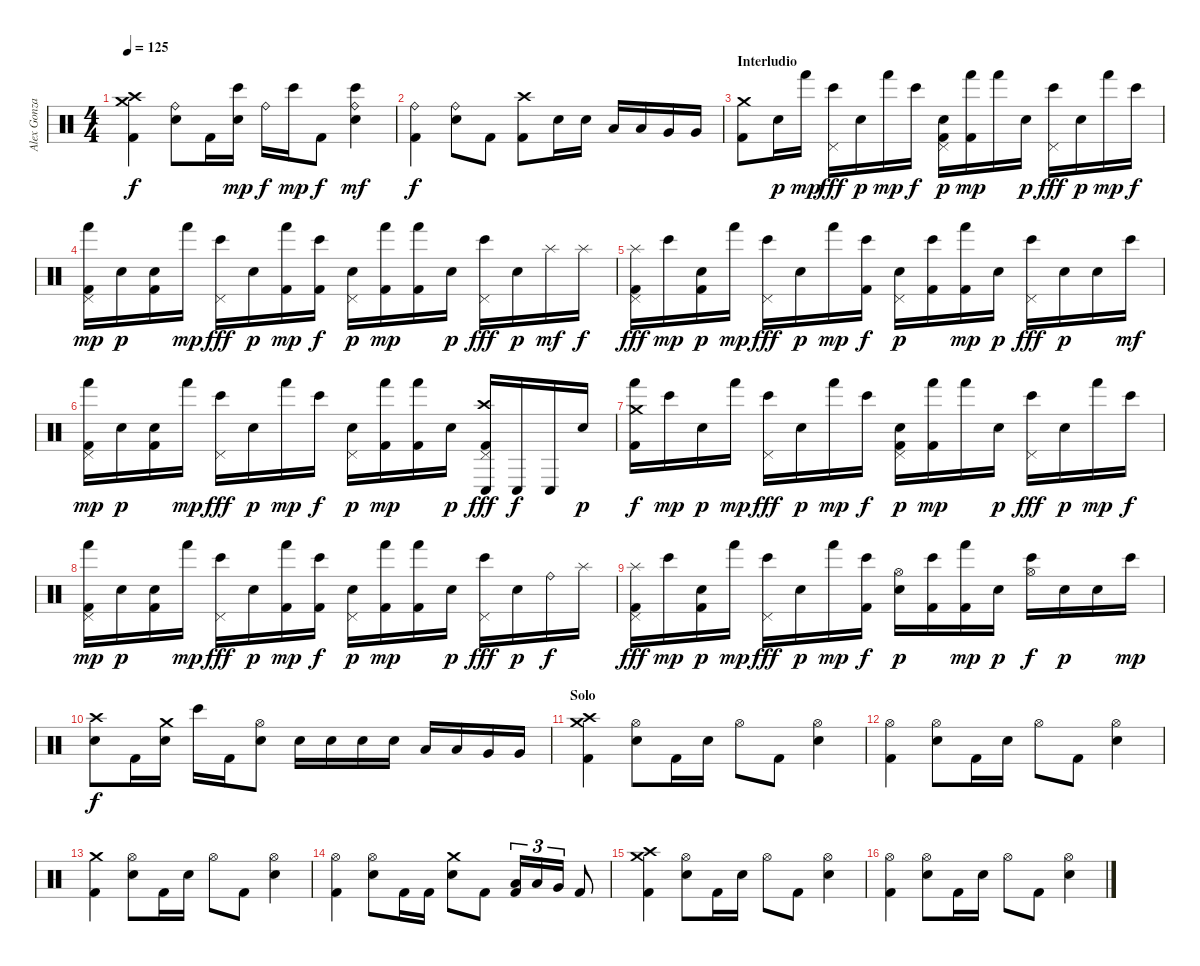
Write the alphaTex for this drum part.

\track ("Alex Gonzales" "Alex Gonza") {instrument percussion}
\staff {score}
\articulation defaults
\ts (4 4)
\tempo 125
\clef neutral
\ks c
("Crash medium (hit)" "Crash high (hit)" "Kick (hit) 2").4{dy f} ("Ride (bell)" "Electric Snare (hit)").8 "Kick (hit) 2".16 ("Electric Snare (hit)" "Bongo High (hit)").16{dy mp} "Ride (bell)".16{dy f} "Bongo High (hit)".16{dy mp} "Kick (hit) 2".8{dy f} ("Ride (bell)" "Electric Snare (hit)" "Bongo High (hit)").4{dy mf} |
("Ride (bell)" "Kick (hit) 2").4{dy f} ("Ride (bell)" "Electric Snare (hit)").8 "Kick (hit) 2".8 ("Crash high (hit)" "Kick (hit) 2").8 "Electric Snare (hit)".16 "Electric Snare (hit)".16 "Low Tom (hit)".16 "Low Tom (hit)".16 "Very Low Tom (hit)".16 "Very Low Tom (hit)".16 |
\section ("" "Interludio")
("Crash medium (hit)" "Kick (hit) 2").8 "Electric Snare (hit)".16{dy p} "Hand (hit)".16{dy mp} ("Pedal Hi-Hat (hit)" "Bongo High (hit)").16{dy fff} "Electric Snare (hit)".16{dy p} "Hand (hit)".16{dy mp} "Bongo High (hit)".16{dy f} ("Pedal Hi-Hat (hit)" "Electric Snare (hit)" "Kick (hit) 2").16{dy p} ("Hand (hit)" "Kick (hit) 2").16{dy mp} "Hand (hit)".16 "Electric Snare (hit)".16{dy p} ("Pedal Hi-Hat (hit)" "Bongo High (hit)").16{dy fff} "Electric Snare (hit)".16{dy p} "Hand (hit)".16{dy mp} "Bongo High (hit)".16{dy f} |
("Pedal Hi-Hat (hit)" "Hand (hit)" "Kick (hit) 2").16{dy mp} "Electric Snare (hit)".16{dy p} ("Electric Snare (hit)" "Kick (hit) 2").16 "Hand (hit)".16{dy mp} ("Pedal Hi-Hat (hit)" "Bongo High (hit)").16{dy fff} "Electric Snare (hit)".16{dy p} ("Hand (hit)" "Kick (hit) 2").16{dy mp} ("Bongo High (hit)" "Kick (hit) 2").16{dy f} ("Pedal Hi-Hat (hit)" "Electric Snare (hit)").16{dy p} ("Hand (hit)" "Kick (hit) 2").16{dy mp} ("Hand (hit)" "Kick (hit) 2").16 "Electric Snare (hit)".16{dy p} ("Pedal Hi-Hat (hit)" "Bongo High (hit)").16{dy fff} "Electric Snare (hit)".16{dy p} "Splash (hit)".16{dy mf} "Splash (hit)".16{dy f} |
("Pedal Hi-Hat (hit)" "Splash (hit)" "Kick (hit) 2").16{dy fff} "Bongo High (hit)".16{dy mp} ("Electric Snare (hit)" "Kick (hit) 2").16{dy p} "Hand (hit)".16{dy mp} ("Pedal Hi-Hat (hit)" "Bongo High (hit)").16{dy fff} "Electric Snare (hit)".16{dy p} "Hand (hit)".16{dy mp} ("Bongo High (hit)" "Kick (hit) 2").16{dy f} ("Pedal Hi-Hat (hit)" "Electric Snare (hit)").16{dy p} ("Bongo High (hit)" "Kick (hit) 2").16 ("Hand (hit)" "Kick (hit) 2").16{dy mp} "Electric Snare (hit)".16{dy p} ("Pedal Hi-Hat (hit)" "Bongo High (hit)").16{dy fff} "Electric Snare (hit)".16{dy p} "Electric Snare (hit)".16 "Bongo High (hit)".16{dy mf} |
("Pedal Hi-Hat (hit)" "Hand (hit)" "Kick (hit) 2").16{dy mp} "Electric Snare (hit)".16{dy p} ("Electric Snare (hit)" "Kick (hit) 2").16 "Hand (hit)".16{dy mp} ("Pedal Hi-Hat (hit)" "Bongo High (hit)").16{dy fff} "Electric Snare (hit)".16{dy p} "Hand (hit)".16{dy mp} "Bongo High (hit)".16{dy f} ("Pedal Hi-Hat (hit)" "Electric Snare (hit)").16{dy p} ("Hand (hit)" "Kick (hit) 2").16{dy mp} ("Hand (hit)" "Kick (hit) 2").16 "Electric Snare (hit)".16{dy p} ("Pedal Hi-Hat (hit)" "Conga low (hit)" "Crash high (hit)" "Kick (hit) 2").16{dy fff} "Conga low (hit)".16{dy f} "Conga low (hit)".16 "Electric Snare (hit)".16{dy p} |
("Crash medium (hit)" "Hand (hit)" "Kick (hit) 2").16{dy f} "Bongo High (hit)".16{dy mp} "Electric Snare (hit)".16{dy p} "Hand (hit)".16{dy mp} ("Pedal Hi-Hat (hit)" "Bongo High (hit)").16{dy fff} "Electric Snare (hit)".16{dy p} "Hand (hit)".16{dy mp} "Bongo High (hit)".16{dy f} ("Pedal Hi-Hat (hit)" "Electric Snare (hit)" "Kick (hit) 2").16{dy p} ("Hand (hit)" "Kick (hit) 2").16{dy mp} "Hand (hit)".16 "Electric Snare (hit)".16{dy p} ("Pedal Hi-Hat (hit)" "Bongo High (hit)").16{dy fff} "Electric Snare (hit)".16{dy p} "Hand (hit)".16{dy mp} "Bongo High (hit)".16{dy f} |
("Pedal Hi-Hat (hit)" "Hand (hit)" "Kick (hit) 2").16{dy mp} "Electric Snare (hit)".16{dy p} ("Electric Snare (hit)" "Kick (hit) 2").16 "Hand (hit)".16{dy mp} ("Pedal Hi-Hat (hit)" "Bongo High (hit)").16{dy fff} "Electric Snare (hit)".16{dy p} ("Hand (hit)" "Kick (hit) 2").16{dy mp} ("Bongo High (hit)" "Kick (hit) 2").16{dy f} ("Pedal Hi-Hat (hit)" "Electric Snare (hit)").16{dy p} ("Hand (hit)" "Kick (hit) 2").16{dy mp} ("Hand (hit)" "Kick (hit) 2").16 "Electric Snare (hit)".16{dy p} ("Pedal Hi-Hat (hit)" "Bongo High (hit)").16{dy fff} "Electric Snare (hit)".16{dy p} "Ride (bell)".16{dy f} "Splash (hit)".16 |
("Pedal Hi-Hat (hit)" "Splash (hit)" "Kick (hit) 2").16{dy fff} "Bongo High (hit)".16{dy mp} ("Electric Snare (hit)" "Kick (hit) 2").16{dy p} "Hand (hit)".16{dy mp} ("Pedal Hi-Hat (hit)" "Bongo High (hit)").16{dy fff} "Electric Snare (hit)".16{dy p} "Hand (hit)".16{dy mp} ("Bongo High (hit)" "Kick (hit) 2").16{dy f} ("Hi-Hat (open)" "Electric Snare (hit)").16{dy p} ("Bongo High (hit)" "Kick (hit) 2").16 ("Hand (hit)" "Kick (hit) 2").16{dy mp} "Electric Snare (hit)".16{dy p} ("Hi-Hat (open)" "Bongo High (hit)").16{dy f} "Electric Snare (hit)".16{dy p} "Electric Snare (hit)".16 "Bongo High (hit)".16{dy mp} |
("Crash high (hit)" "Electric Snare (hit)").8{dy f} "Kick (hit) 2".16 ("Crash medium (hit)" "Electric Snare (hit)").16 "Bongo High (hit)".16 "Kick (hit) 2".16 ("Hi-Hat (open)" "Electric Snare (hit)").8 "Electric Snare (hit)".16 "Electric Snare (hit)".16 "Electric Snare (hit)".16 "Electric Snare (hit)".16 "Low Tom (hit)".16 "Low Tom (hit)".16 "Very Low Tom (hit)".16 "Very Low Tom (hit)".16 |
\section ("" "Solo")
("Crash medium (hit)" "Crash high (hit)" "Kick (hit) 2").4 ("Hi-Hat (open)" "Electric Snare (hit)").8 "Kick (hit) 2".16 "Electric Snare (hit)".16 "Hi-Hat (open)".8 "Kick (hit) 2".8 ("Hi-Hat (open)" "Electric Snare (hit)").4 |
("Hi-Hat (open)" "Kick (hit) 2").4 ("Hi-Hat (open)" "Electric Snare (hit)").8 "Kick (hit) 2".16 "Electric Snare (hit)".16 "Hi-Hat (open)".8 "Kick (hit) 2".8 ("Hi-Hat (open)" "Electric Snare (hit)").4 |
("Crash medium (hit)" "Kick (hit) 2").4 ("Hi-Hat (open)" "Electric Snare (hit)").8 "Kick (hit) 2".16 "Electric Snare (hit)".16 "Hi-Hat (open)".8 "Kick (hit) 2".8 ("Hi-Hat (open)" "Electric Snare (hit)").4 |
("Hi-Hat (open)" "Kick (hit) 2").4 ("Hi-Hat (open)" "Electric Snare (hit)").8 "Kick (hit) 2".16 "Kick (hit) 2".16 ("Crash medium (hit)" "Electric Snare (hit)").8 "Kick (hit) 2".8 ("Low Tom (hit)" "Kick (hit) 2").16{tu (3 2)} "Low Tom (hit)".16{tu (3 2)} "Very Low Tom (hit)".16{tu (3 2)} "Kick (hit) 2".8 |
("Crash medium (hit)" "Crash high (hit)" "Kick (hit) 2").4 ("Hi-Hat (open)" "Electric Snare (hit)").8 "Kick (hit) 2".16 "Electric Snare (hit)".16 "Hi-Hat (open)".8 "Kick (hit) 2".8 ("Hi-Hat (open)" "Electric Snare (hit)").4 |
("Hi-Hat (open)" "Kick (hit) 2").4 ("Hi-Hat (open)" "Electric Snare (hit)").8 "Kick (hit) 2".16 "Electric Snare (hit)".16 "Hi-Hat (open)".8 "Kick (hit) 2".8 ("Hi-Hat (open)" "Electric Snare (hit)").4
